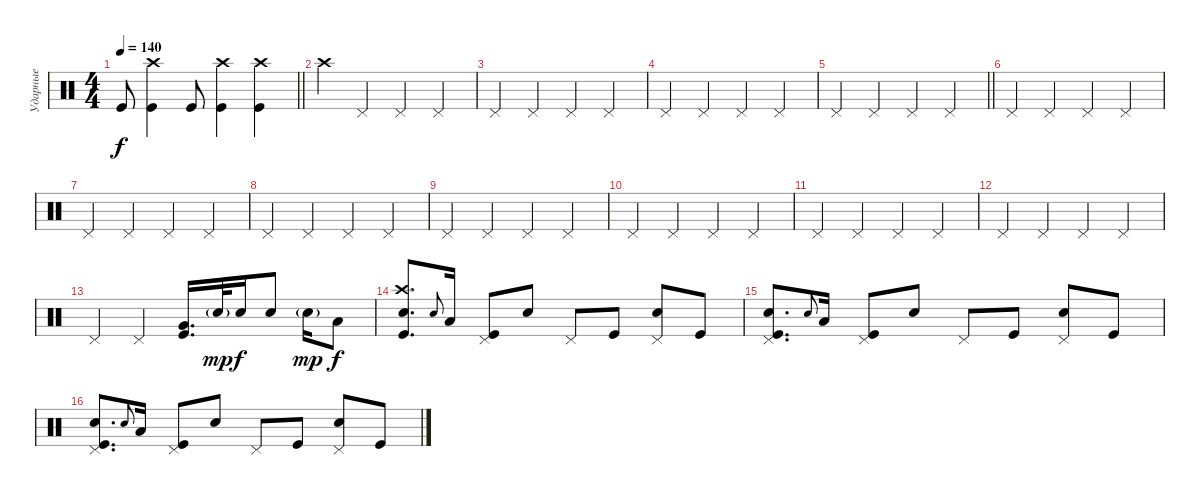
\track ("Ударные" "Ударные") {instrument percussion}
\staff {score}
\articulation defaults
\ts (4 4)
\tempo 140
\clef neutral
\barLineRight lightlight
\ks c "Kick (hit)".8{dy f}
("Crash high (hit)" "Kick (hit)").4 "Kick (hit)".8 ("Crash high (hit)" "Kick (hit)").4 ("Crash high (hit)" "Kick (hit)").4 |
"Crash high (hit)".4 "Pedal Hi-Hat (hit)".4 "Pedal Hi-Hat (hit)".4 "Pedal Hi-Hat (hit)".4 |
"Pedal Hi-Hat (hit)".4 "Pedal Hi-Hat (hit)".4 "Pedal Hi-Hat (hit)".4 "Pedal Hi-Hat (hit)".4 |
"Pedal Hi-Hat (hit)".4 "Pedal Hi-Hat (hit)".4 "Pedal Hi-Hat (hit)".4 "Pedal Hi-Hat (hit)".4 |
\barLineRight lightlight "Pedal Hi-Hat (hit)".4 "Pedal Hi-Hat (hit)".4 "Pedal Hi-Hat (hit)".4 "Pedal Hi-Hat (hit)".4
|
"Pedal Hi-Hat (hit)".4 "Pedal Hi-Hat (hit)".4 "Pedal Hi-Hat (hit)".4 "Pedal Hi-Hat (hit)".4 |
"Pedal Hi-Hat (hit)".4 "Pedal Hi-Hat (hit)".4 "Pedal Hi-Hat (hit)".4 "Pedal Hi-Hat (hit)".4 |
"Pedal Hi-Hat (hit)".4 "Pedal Hi-Hat (hit)".4 "Pedal Hi-Hat (hit)".4 "Pedal Hi-Hat (hit)".4 |
"Pedal Hi-Hat (hit)".4 "Pedal Hi-Hat (hit)".4 "Pedal Hi-Hat (hit)".4 "Pedal Hi-Hat (hit)".4 |
"Pedal Hi-Hat (hit)".4 "Pedal Hi-Hat (hit)".4 "Pedal Hi-Hat (hit)".4 "Pedal Hi-Hat (hit)".4 |
"Pedal Hi-Hat (hit)".4 "Pedal Hi-Hat (hit)".4 "Pedal Hi-Hat (hit)".4 "Pedal Hi-Hat (hit)".4 |
"Pedal Hi-Hat (hit)".4 "Pedal Hi-Hat (hit)".4 "Pedal Hi-Hat (hit)".4 "Pedal Hi-Hat (hit)".4 |
"Pedal Hi-Hat (hit)".4 "Pedal Hi-Hat (hit)".4 ("Very Low Tom (hit)" "Kick (hit)").16{d} "Electric Snare (hit)"{g}.32{dy mp} "Snare (hit) 2".16{dy f} "Snare (hit) 2".8 "Snare (hit) 2"{g}.16{dy mp} "Low Tom (hit)".8{dy f} |
("Crash high (hit)" "Snare (hit) 2" "Kick (hit)").8{d} "Snare (hit) 2"{x}.8{gr onbeat} "Low Tom (hit)".16 ("Pedal Hi-Hat (hit)" "Kick (hit)").8 "Snare (hit) 2".8 "Pedal Hi-Hat (hit)".8 "Kick (hit)".8 ("Pedal Hi-Hat (hit)" "Electric Snare (hit)").8 "Kick (hit)".8 |
("Pedal Hi-Hat (hit)" "Snare (hit) 2" "Kick (hit)").8{d} "Snare (hit) 2"{x}.8{gr onbeat} "Low Tom (hit)".16 ("Pedal Hi-Hat (hit)" "Kick (hit)").8 "Snare (hit) 2".8 "Pedal Hi-Hat (hit)".8 "Kick (hit)".8 ("Pedal Hi-Hat (hit)" "Electric Snare (hit)").8 "Kick (hit)".8 |
("Pedal Hi-Hat (hit)" "Snare (hit) 2" "Kick (hit)").8{d} "Snare (hit) 2"{x}.8{gr onbeat} "Low Tom (hit)".16 ("Pedal Hi-Hat (hit)" "Kick (hit)").8 "Snare (hit) 2".8 "Pedal Hi-Hat (hit)".8 "Kick (hit)".8 ("Pedal Hi-Hat (hit)" "Electric Snare (hit)").8 "Kick (hit)".8
